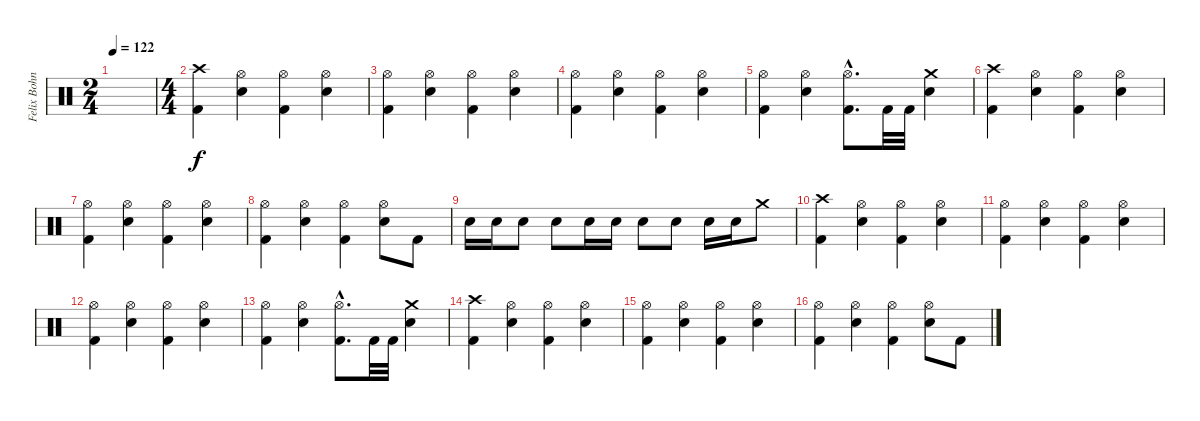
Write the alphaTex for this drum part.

\track ("Felix Bohnke" "Felix Bohn") {instrument percussion}
\staff {score}
\articulation defaults
\ts (2 4)
\tempo 122
\clef neutral
\ks c
|
\ts (4 4)
("Crash high (hit)" "Kick (hit) 2").4 ("Hi-Hat (open)" "Snare (hit) 2").4 ("Hi-Hat (open)" "Kick (hit) 2").4 ("Hi-Hat (open)" "Snare (hit) 2").4 |
("Hi-Hat (open)" "Kick (hit) 2").4 ("Hi-Hat (open)" "Snare (hit) 2").4 ("Hi-Hat (open)" "Kick (hit) 2").4 ("Hi-Hat (open)" "Snare (hit) 2").4 |
("Hi-Hat (open)" "Kick (hit) 2").4 ("Hi-Hat (open)" "Snare (hit) 2").4 ("Hi-Hat (open)" "Kick (hit) 2").4 ("Hi-Hat (open)" "Snare (hit) 2").4 |
("Hi-Hat (open)" "Kick (hit) 2").4 ("Hi-Hat (open)" "Snare (hit) 2").4 ("Hi-Hat (open)"{hac} "Kick (hit) 2"{hac}).8{d} "Kick (hit) 2".32 "Kick (hit) 2".32 ("Crash medium (hit)" "Snare (hit) 2").4 |
("Crash high (hit)" "Kick (hit) 2").4 ("Hi-Hat (open)" "Snare (hit) 2").4 ("Hi-Hat (open)" "Kick (hit) 2").4 ("Hi-Hat (open)" "Snare (hit) 2").4 |
("Hi-Hat (open)" "Kick (hit) 2").4 ("Hi-Hat (open)" "Snare (hit) 2").4 ("Hi-Hat (open)" "Kick (hit) 2").4 ("Hi-Hat (open)" "Snare (hit) 2").4 |
("Hi-Hat (open)" "Kick (hit) 2").4 ("Hi-Hat (open)" "Snare (hit) 2").4 ("Hi-Hat (open)" "Kick (hit) 2").4 ("Hi-Hat (open)" "Snare (hit) 2").8 "Kick (hit) 2".8 |
"Snare (hit) 2".16 "Snare (hit) 2".16 "Snare (hit) 2".8 "Snare (hit) 2".8 "Snare (hit) 2".16 "Snare (hit) 2".16 "Snare (hit) 2".8 "Snare (hit) 2".8 "Snare (hit) 2".16 "Snare (hit) 2".16 "Crash medium (hit)".8 |
("Crash high (hit)" "Kick (hit) 2").4 ("Hi-Hat (open)" "Snare (hit) 2").4 ("Hi-Hat (open)" "Kick (hit) 2").4 ("Hi-Hat (open)" "Snare (hit) 2").4 |
("Hi-Hat (open)" "Kick (hit) 2").4 ("Hi-Hat (open)" "Snare (hit) 2").4 ("Hi-Hat (open)" "Kick (hit) 2").4 ("Hi-Hat (open)" "Snare (hit) 2").4 |
("Hi-Hat (open)" "Kick (hit) 2").4 ("Hi-Hat (open)" "Snare (hit) 2").4 ("Hi-Hat (open)" "Kick (hit) 2").4 ("Hi-Hat (open)" "Snare (hit) 2").4 |
("Hi-Hat (open)" "Kick (hit) 2").4 ("Hi-Hat (open)" "Snare (hit) 2").4 ("Hi-Hat (open)"{hac} "Kick (hit) 2"{hac}).8{d} "Kick (hit) 2".32 "Kick (hit) 2".32 ("Crash medium (hit)" "Snare (hit) 2").4 |
("Crash high (hit)" "Kick (hit) 2").4 ("Hi-Hat (open)" "Snare (hit) 2").4 ("Hi-Hat (open)" "Kick (hit) 2").4 ("Hi-Hat (open)" "Snare (hit) 2").4 |
("Hi-Hat (open)" "Kick (hit) 2").4 ("Hi-Hat (open)" "Snare (hit) 2").4 ("Hi-Hat (open)" "Kick (hit) 2").4 ("Hi-Hat (open)" "Snare (hit) 2").4 |
("Hi-Hat (open)" "Kick (hit) 2").4 ("Hi-Hat (open)" "Snare (hit) 2").4 ("Hi-Hat (open)" "Kick (hit) 2").4 ("Hi-Hat (open)" "Snare (hit) 2").8 "Kick (hit) 2".8
